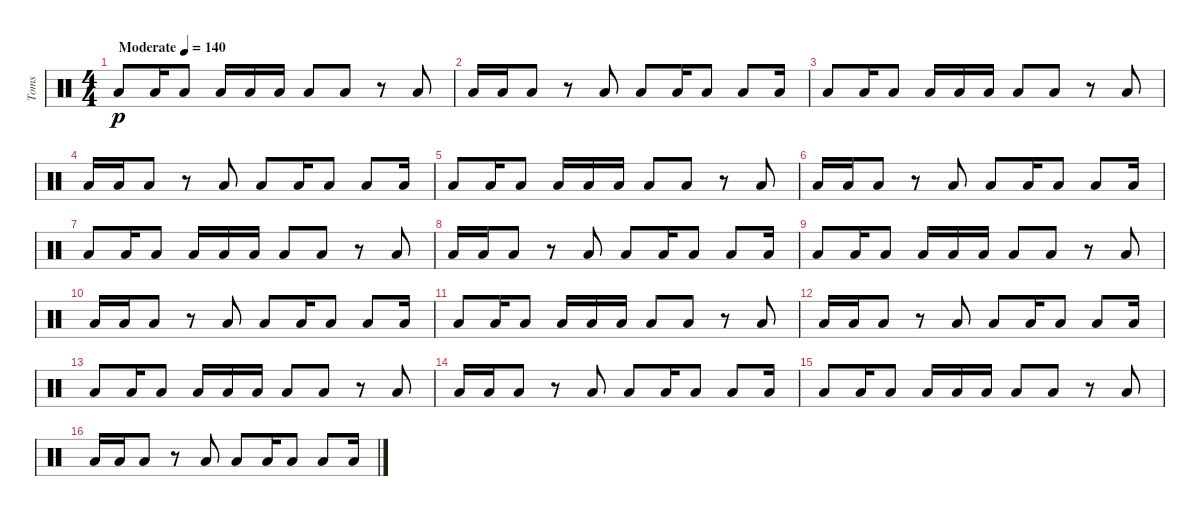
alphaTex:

\track ("Toms" "Toms") {instrument percussion}
\staff {score}
\articulation defaults
\ts (4 4)
\tempo (140 "Moderate")
\clef neutral
\ks c "Low Floor Tom (hit)".8{dy p} "Low Tom (hit)".16 "Low Floor Tom (hit)".8 "Low Tom (hit)".16 "Low Floor Tom (hit)".16 "Low Floor Tom (hit)".16 "Low Floor Tom (hit)".8 "Low Tom (hit)".8
r.8 "Low Tom (hit)".8 |
"Low Floor Tom (hit)".16 "Low Floor Tom (hit)".16 "Low Tom (hit)".8 r.8 "Low Tom (hit)".8 "Low Floor Tom (hit)".8 "Low Tom (hit)".16 "Low Floor Tom (hit)".8 "Low Tom (hit)".8 "Low Floor Tom (hit)".16 |
"Low Floor Tom (hit)".8 "Low Tom (hit)".16 "Low Floor Tom (hit)".8 "Low Tom (hit)".16 "Low Floor Tom (hit)".16 "Low Floor Tom (hit)".16 "Low Floor Tom (hit)".8 "Low Tom (hit)".8 r.8 "Low Tom (hit)".8 |
"Low Floor Tom (hit)".16 "Low Floor Tom (hit)".16 "Low Tom (hit)".8 r.8 "Low Tom (hit)".8 "Low Floor Tom (hit)".8 "Low Tom (hit)".16 "Low Floor Tom (hit)".8 "Low Tom (hit)".8 "Low Floor Tom (hit)".16 |
"Low Floor Tom (hit)".8 "Low Tom (hit)".16 "Low Floor Tom (hit)".8 "Low Tom (hit)".16 "Low Floor Tom (hit)".16 "Low Floor Tom (hit)".16 "Low Floor Tom (hit)".8 "Low Tom (hit)".8 r.8 "Low Tom (hit)".8 |
"Low Floor Tom (hit)".16 "Low Floor Tom (hit)".16 "Low Tom (hit)".8 r.8 "Low Tom (hit)".8 "Low Floor Tom (hit)".8 "Low Tom (hit)".16 "Low Floor Tom (hit)".8 "Low Tom (hit)".8 "Low Floor Tom (hit)".16 |
"Low Floor Tom (hit)".8 "Low Tom (hit)".16 "Low Floor Tom (hit)".8 "Low Tom (hit)".16 "Low Floor Tom (hit)".16 "Low Floor Tom (hit)".16 "Low Floor Tom (hit)".8 "Low Tom (hit)".8 r.8 "Low Tom (hit)".8 |
"Low Floor Tom (hit)".16 "Low Floor Tom (hit)".16 "Low Tom (hit)".8 r.8 "Low Tom (hit)".8 "Low Floor Tom (hit)".8 "Low Tom (hit)".16 "Low Floor Tom (hit)".8 "Low Tom (hit)".8 "Low Floor Tom (hit)".16 |
"Low Floor Tom (hit)".8 "Low Tom (hit)".16 "Low Floor Tom (hit)".8 "Low Tom (hit)".16 "Low Floor Tom (hit)".16 "Low Floor Tom (hit)".16 "Low Floor Tom (hit)".8 "Low Tom (hit)".8 r.8 "Low Tom (hit)".8 |
"Low Floor Tom (hit)".16 "Low Floor Tom (hit)".16 "Low Tom (hit)".8 r.8 "Low Tom (hit)".8 "Low Floor Tom (hit)".8 "Low Tom (hit)".16 "Low Floor Tom (hit)".8 "Low Tom (hit)".8 "Low Floor Tom (hit)".16 |
"Low Floor Tom (hit)".8 "Low Tom (hit)".16 "Low Floor Tom (hit)".8 "Low Tom (hit)".16 "Low Floor Tom (hit)".16 "Low Floor Tom (hit)".16 "Low Floor Tom (hit)".8 "Low Tom (hit)".8 r.8 "Low Tom (hit)".8 |
"Low Floor Tom (hit)".16 "Low Floor Tom (hit)".16 "Low Tom (hit)".8 r.8 "Low Tom (hit)".8 "Low Floor Tom (hit)".8 "Low Tom (hit)".16 "Low Floor Tom (hit)".8 "Low Tom (hit)".8 "Low Floor Tom (hit)".16 |
"Low Floor Tom (hit)".8 "Low Tom (hit)".16 "Low Floor Tom (hit)".8 "Low Tom (hit)".16 "Low Floor Tom (hit)".16 "Low Floor Tom (hit)".16 "Low Floor Tom (hit)".8 "Low Tom (hit)".8 r.8 "Low Tom (hit)".8 |
"Low Floor Tom (hit)".16 "Low Floor Tom (hit)".16 "Low Tom (hit)".8 r.8 "Low Tom (hit)".8 "Low Floor Tom (hit)".8 "Low Tom (hit)".16 "Low Floor Tom (hit)".8 "Low Tom (hit)".8 "Low Floor Tom (hit)".16 |
"Low Floor Tom (hit)".8 "Low Tom (hit)".16 "Low Floor Tom (hit)".8 "Low Tom (hit)".16 "Low Floor Tom (hit)".16 "Low Floor Tom (hit)".16 "Low Floor Tom (hit)".8 "Low Tom (hit)".8 r.8 "Low Tom (hit)".8 |
"Low Floor Tom (hit)".16 "Low Floor Tom (hit)".16 "Low Tom (hit)".8 r.8 "Low Tom (hit)".8 "Low Floor Tom (hit)".8 "Low Tom (hit)".16 "Low Floor Tom (hit)".8 "Low Tom (hit)".8 "Low Floor Tom (hit)".16
